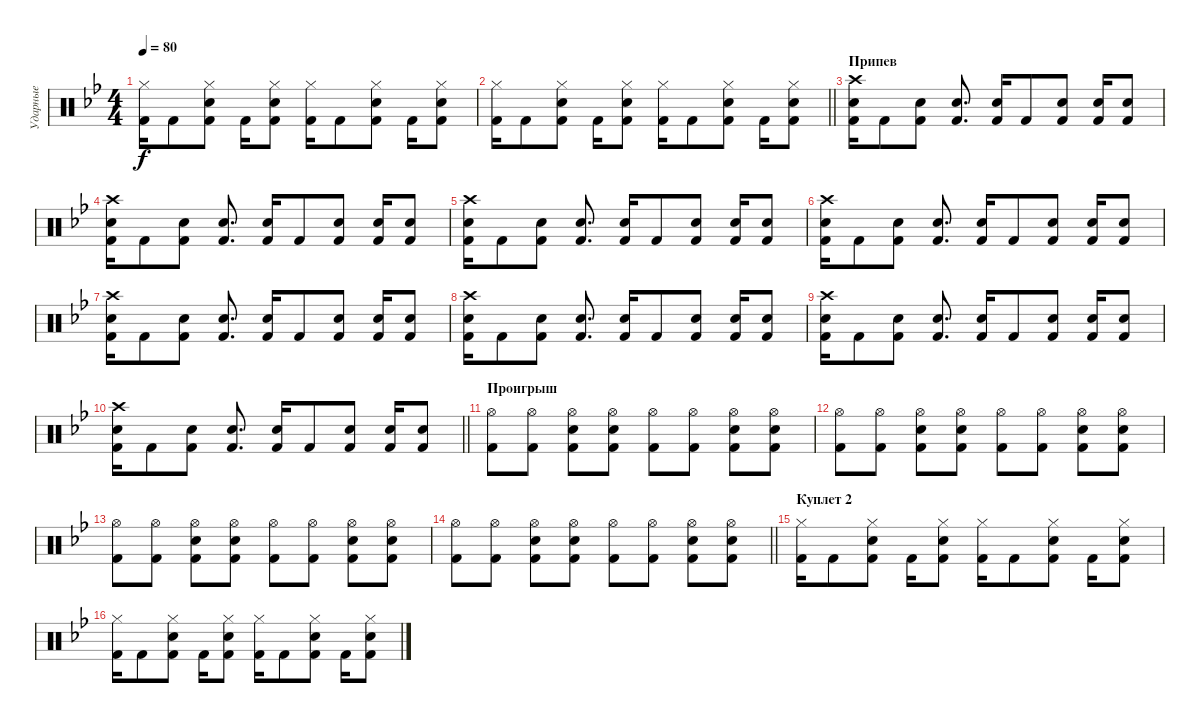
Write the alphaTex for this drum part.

\track ("Ударные" "Ударные") {instrument percussion}
\staff {score}
\articulation defaults
\ts (4 4)
\tempo 80
\clef neutral
\ks gminor
("Hi-Hat (closed)" "Kick (hit) 2").16{dy f} "Kick (hit) 2".8 ("Hi-Hat (closed)" "Electric Snare (hit)" "Kick (hit) 2").8 "Kick (hit) 2".16 ("Hi-Hat (closed)" "Electric Snare (hit)" "Kick (hit) 2").8 ("Hi-Hat (closed)" "Kick (hit) 2").16 "Kick (hit) 2".8 ("Hi-Hat (closed)" "Electric Snare (hit)" "Kick (hit) 2").8 "Kick (hit) 2".16 ("Hi-Hat (closed)" "Electric Snare (hit)" "Kick (hit) 2").8 |
\barLineRight lightlight
("Hi-Hat (closed)" "Kick (hit) 2").16 "Kick (hit) 2".8 ("Hi-Hat (closed)" "Electric Snare (hit)" "Kick (hit) 2").8 "Kick (hit) 2".16 ("Hi-Hat (closed)" "Electric Snare (hit)" "Kick (hit) 2").8 ("Hi-Hat (closed)" "Kick (hit) 2").16 "Kick (hit) 2".8 ("Hi-Hat (closed)" "Electric Snare (hit)" "Kick (hit) 2").8 "Kick (hit) 2".16 ("Hi-Hat (closed)" "Electric Snare (hit)" "Kick (hit) 2").8 |
\section ("" "Припев")
("Crash high (hit)" "Electric Snare (hit)" "Kick (hit) 2").16 "Kick (hit) 2".8 ("Electric Snare (hit)" "Kick (hit) 2").8 ("Electric Snare (hit)" "Kick (hit) 2").8{d} ("Electric Snare (hit)" "Kick (hit) 2").16 "Kick (hit) 2".8 ("Electric Snare (hit)" "Kick (hit) 2").8 ("Electric Snare (hit)" "Kick (hit) 2").16 ("Electric Snare (hit)" "Kick (hit) 2").8 |
("Crash high (hit)" "Electric Snare (hit)" "Kick (hit) 2").16 "Kick (hit) 2".8 ("Electric Snare (hit)" "Kick (hit) 2").8 ("Electric Snare (hit)" "Kick (hit) 2").8{d} ("Electric Snare (hit)" "Kick (hit) 2").16 "Kick (hit) 2".8 ("Electric Snare (hit)" "Kick (hit) 2").8 ("Electric Snare (hit)" "Kick (hit) 2").16 ("Electric Snare (hit)" "Kick (hit) 2").8 |
("Crash high (hit)" "Electric Snare (hit)" "Kick (hit) 2").16 "Kick (hit) 2".8 ("Electric Snare (hit)" "Kick (hit) 2").8 ("Electric Snare (hit)" "Kick (hit) 2").8{d} ("Electric Snare (hit)" "Kick (hit) 2").16 "Kick (hit) 2".8 ("Electric Snare (hit)" "Kick (hit) 2").8 ("Electric Snare (hit)" "Kick (hit) 2").16 ("Electric Snare (hit)" "Kick (hit) 2").8 |
("Crash high (hit)" "Electric Snare (hit)" "Kick (hit) 2").16 "Kick (hit) 2".8 ("Electric Snare (hit)" "Kick (hit) 2").8 ("Electric Snare (hit)" "Kick (hit) 2").8{d} ("Electric Snare (hit)" "Kick (hit) 2").16 "Kick (hit) 2".8 ("Electric Snare (hit)" "Kick (hit) 2").8 ("Electric Snare (hit)" "Kick (hit) 2").16 ("Electric Snare (hit)" "Kick (hit) 2").8 |
("Crash high (hit)" "Electric Snare (hit)" "Kick (hit) 2").16 "Kick (hit) 2".8 ("Electric Snare (hit)" "Kick (hit) 2").8 ("Electric Snare (hit)" "Kick (hit) 2").8{d} ("Electric Snare (hit)" "Kick (hit) 2").16 "Kick (hit) 2".8 ("Electric Snare (hit)" "Kick (hit) 2").8 ("Electric Snare (hit)" "Kick (hit) 2").16 ("Electric Snare (hit)" "Kick (hit) 2").8 |
("Crash high (hit)" "Electric Snare (hit)" "Kick (hit) 2").16 "Kick (hit) 2".8 ("Electric Snare (hit)" "Kick (hit) 2").8 ("Electric Snare (hit)" "Kick (hit) 2").8{d} ("Electric Snare (hit)" "Kick (hit) 2").16 "Kick (hit) 2".8 ("Electric Snare (hit)" "Kick (hit) 2").8 ("Electric Snare (hit)" "Kick (hit) 2").16 ("Electric Snare (hit)" "Kick (hit) 2").8 |
("Crash high (hit)" "Electric Snare (hit)" "Kick (hit) 2").16 "Kick (hit) 2".8 ("Electric Snare (hit)" "Kick (hit) 2").8 ("Electric Snare (hit)" "Kick (hit) 2").8{d} ("Electric Snare (hit)" "Kick (hit) 2").16 "Kick (hit) 2".8 ("Electric Snare (hit)" "Kick (hit) 2").8 ("Electric Snare (hit)" "Kick (hit) 2").16 ("Electric Snare (hit)" "Kick (hit) 2").8 |
\barLineRight lightlight
("Crash high (hit)" "Electric Snare (hit)" "Kick (hit) 2").16 "Kick (hit) 2".8 ("Electric Snare (hit)" "Kick (hit) 2").8 ("Electric Snare (hit)" "Kick (hit) 2").8{d} ("Electric Snare (hit)" "Kick (hit) 2").16 "Kick (hit) 2".8 ("Electric Snare (hit)" "Kick (hit) 2").8 ("Electric Snare (hit)" "Kick (hit) 2").16 ("Electric Snare (hit)" "Kick (hit) 2").8 |
\section ("" "Проигрыш")
("Hi-Hat (open)" "Kick (hit) 2").8 ("Hi-Hat (open)" "Kick (hit) 2").8 ("Hi-Hat (open)" "Electric Snare (hit)" "Kick (hit) 2").8 ("Hi-Hat (open)" "Electric Snare (hit)" "Kick (hit) 2").8 ("Hi-Hat (open)" "Kick (hit) 2").8 ("Hi-Hat (open)" "Kick (hit) 2").8 ("Hi-Hat (open)" "Electric Snare (hit)" "Kick (hit) 2").8 ("Hi-Hat (open)" "Electric Snare (hit)" "Kick (hit) 2").8 |
("Hi-Hat (open)" "Kick (hit) 2").8 ("Hi-Hat (open)" "Kick (hit) 2").8 ("Hi-Hat (open)" "Electric Snare (hit)" "Kick (hit) 2").8 ("Hi-Hat (open)" "Electric Snare (hit)" "Kick (hit) 2").8 ("Hi-Hat (open)" "Kick (hit) 2").8 ("Hi-Hat (open)" "Kick (hit) 2").8 ("Hi-Hat (open)" "Electric Snare (hit)" "Kick (hit) 2").8 ("Hi-Hat (open)" "Electric Snare (hit)" "Kick (hit) 2").8 |
("Hi-Hat (open)" "Kick (hit) 2").8 ("Hi-Hat (open)" "Kick (hit) 2").8 ("Hi-Hat (open)" "Electric Snare (hit)" "Kick (hit) 2").8 ("Hi-Hat (open)" "Electric Snare (hit)" "Kick (hit) 2").8 ("Hi-Hat (open)" "Kick (hit) 2").8 ("Hi-Hat (open)" "Kick (hit) 2").8 ("Hi-Hat (open)" "Electric Snare (hit)" "Kick (hit) 2").8 ("Hi-Hat (open)" "Electric Snare (hit)" "Kick (hit) 2").8 |
\barLineRight lightlight
("Hi-Hat (open)" "Kick (hit) 2").8 ("Hi-Hat (open)" "Kick (hit) 2").8 ("Hi-Hat (open)" "Electric Snare (hit)" "Kick (hit) 2").8 ("Hi-Hat (open)" "Electric Snare (hit)" "Kick (hit) 2").8 ("Hi-Hat (open)" "Kick (hit) 2").8 ("Hi-Hat (open)" "Kick (hit) 2").8 ("Hi-Hat (open)" "Electric Snare (hit)" "Kick (hit) 2").8 ("Hi-Hat (open)" "Electric Snare (hit)" "Kick (hit) 2").8 |
\section ("" "Куплет 2")
("Hi-Hat (closed)" "Kick (hit) 2").16 "Kick (hit) 2".8 ("Hi-Hat (closed)" "Electric Snare (hit)" "Kick (hit) 2").8 "Kick (hit) 2".16 ("Hi-Hat (closed)" "Electric Snare (hit)" "Kick (hit) 2").8 ("Hi-Hat (closed)" "Kick (hit) 2").16 "Kick (hit) 2".8 ("Hi-Hat (closed)" "Electric Snare (hit)" "Kick (hit) 2").8 "Kick (hit) 2".16 ("Hi-Hat (closed)" "Electric Snare (hit)" "Kick (hit) 2").8 |
("Hi-Hat (closed)" "Kick (hit) 2").16 "Kick (hit) 2".8 ("Hi-Hat (closed)" "Electric Snare (hit)" "Kick (hit) 2").8 "Kick (hit) 2".16 ("Hi-Hat (closed)" "Electric Snare (hit)" "Kick (hit) 2").8 ("Hi-Hat (closed)" "Kick (hit) 2").16 "Kick (hit) 2".8 ("Hi-Hat (closed)" "Electric Snare (hit)" "Kick (hit) 2").8 "Kick (hit) 2".16 ("Hi-Hat (closed)" "Electric Snare (hit)" "Kick (hit) 2").8
